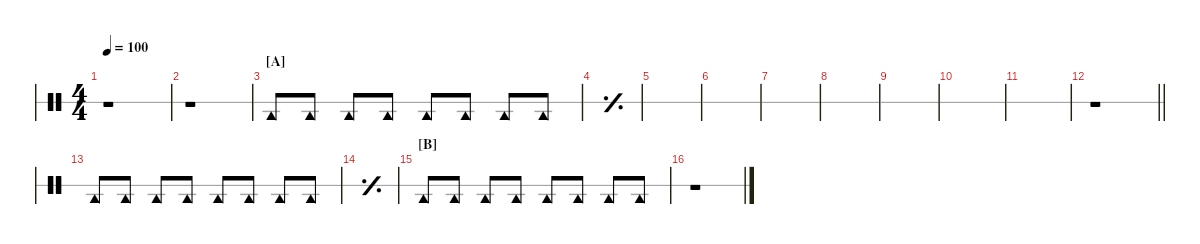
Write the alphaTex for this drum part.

\defaultSystemsLayout 4
\hideDynamics
\bracketExtendMode nobrackets
\singleTrackTrackNamePolicy hidden
\multiTrackTrackNamePolicy hidden
\firstSystemTrackNameMode fullname
\firstSystemTrackNameOrientation horizontal
\otherSystemsTrackNameOrientation horizontal
\track ("Robert Plant" "Tamb.") {defaultSystemsLayout 4 instrument percussion}
\staff {score 1}
\articulation defaults
\ts (4 4)
\tempo 100
\clef neutral
\scale
0.474178
\ks c
r.1{dy mf beam Down} |
\section ("" "")
\scale
0.262911 r.1{beam Down} |
\section ("A" "")
"Tambourine (hit)".8{beam Up} "Tambourine (hit)".8{beam Up} "Tambourine (hit)".8{beam Up} "Tambourine (hit)".8{beam Up} "Tambourine (hit)".8{beam Up} "Tambourine (hit)".8{beam Up} "Tambourine (hit)".8{beam Up} "Tambourine (hit)".8{beam Up} |
\simile simple
|
|
|
|
|
|
|
|
\simile none
\barLineRight lightlight
r.1{beam Down} |
"Tambourine (hit)".8{beam Up} "Tambourine (hit)".8{beam Up} "Tambourine (hit)".8{beam Up} "Tambourine (hit)".8{beam Up} "Tambourine (hit)".8{beam Up} "Tambourine (hit)".8{beam Up} "Tambourine (hit)".8{beam Up} "Tambourine (hit)".8{beam Up} |
\simile simple
|
\section ("B" "")
\simile none "Tambourine (hit)".8{beam Up} "Tambourine (hit)".8{beam Up} "Tambourine (hit)".8{beam Up} "Tambourine (hit)".8{beam Up} "Tambourine (hit)".8{beam Up} "Tambourine (hit)".8{beam Up} "Tambourine (hit)".8{beam Up} "Tambourine (hit)".8{beam Up}
|
r.1{beam Down}
